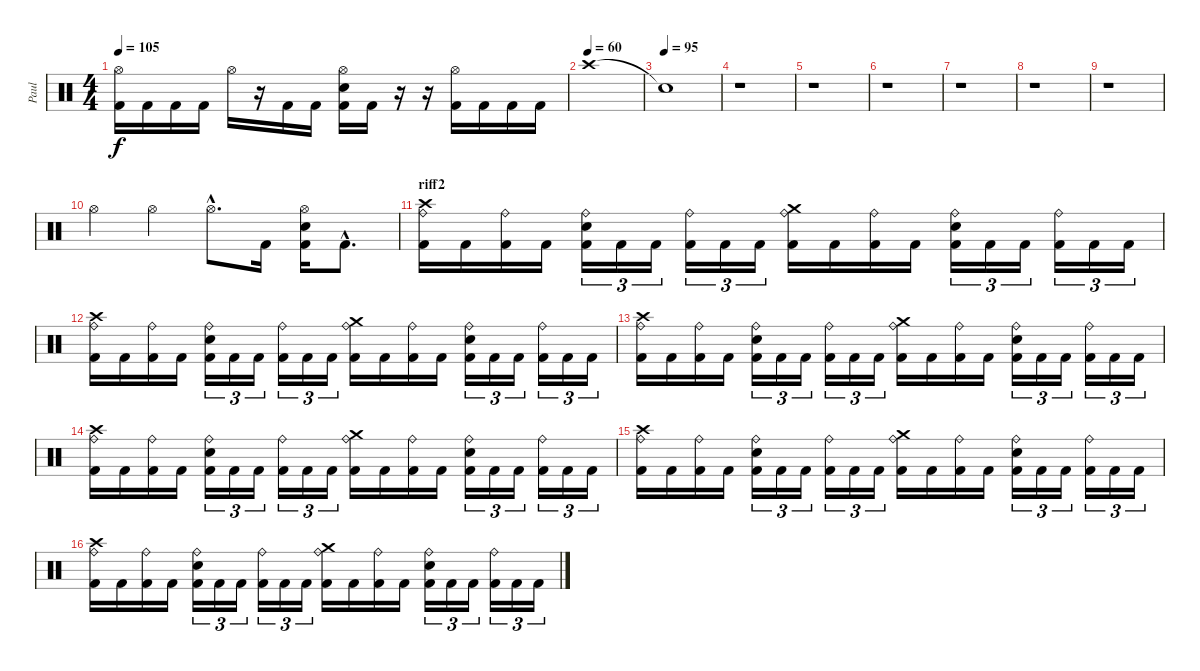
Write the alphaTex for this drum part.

\track ("Paul" "Paul") {instrument percussion}
\staff {score}
\articulation defaults
\ts (4 4)
\tempo 105
\clef neutral
\ks c
("Hi-Hat (open)" "Kick (hit) 2").16{dy f} "Kick (hit) 2".16 "Kick (hit) 2".16 "Kick (hit) 2".16 "Hi-Hat (open)".16 r.16 "Kick (hit) 2".16 "Kick (hit) 2".16 ("Hi-Hat (open)" "Snare (hit) 2" "Kick (hit) 2").16 "Kick (hit) 2".16 r.16 r.16 ("Hi-Hat (open)" "Kick (hit) 2").16 "Kick (hit) 2".16 "Kick (hit) 2".16 "Kick (hit) 2".16 |
\tempo (60)
"Crash high (hit)".1 |
\tempo (95)
"Snare (hit)"{t}.1 |
r.1 |
r.1 |
r.1 |
r.1 |
r.1 |
r.1 |
"Hi-Hat (open)".4 "Hi-Hat (open)".4 "Hi-Hat (open)"{hac}.8{d} "Kick (hit) 2".16 ("Hi-Hat (open)" "Snare (hit) 2" "Kick (hit) 2").16 "Kick (hit) 2"{hac}.8{d} |
\section ("" "riff2")
("Crash high (hit)" "Ride (bell)" "Kick (hit) 2").16 "Kick (hit) 2".16 ("Ride (bell)" "Kick (hit) 2").16 "Kick (hit) 2".16 ("Ride (bell)" "Snare (hit) 2" "Kick (hit) 2").16{tu (3 2)} "Kick (hit) 2".16{tu (3 2)} "Kick (hit) 2".16{tu (3 2)} ("Ride (bell)" "Kick (hit) 2").16{tu (3 2)} "Kick (hit) 2".16{tu (3 2)} "Kick (hit) 2".16{tu (3 2)} ("Crash medium (hit)" "Ride (bell)" "Kick (hit) 2").16 "Kick (hit) 2".16 ("Ride (bell)" "Kick (hit) 2").16 "Kick (hit) 2".16 ("Ride (bell)" "Snare (hit) 2" "Kick (hit) 2").16{tu (3 2)} "Kick (hit) 2".16{tu (3 2)} "Kick (hit) 2".16{tu (3 2)} ("Ride (bell)" "Kick (hit) 2").16{tu (3 2)} "Kick (hit) 2".16{tu (3 2)} "Kick (hit) 2".16{tu (3 2)} |
("Crash high (hit)" "Ride (bell)" "Kick (hit) 2").16 "Kick (hit) 2".16 ("Ride (bell)" "Kick (hit) 2").16 "Kick (hit) 2".16 ("Ride (bell)" "Snare (hit) 2" "Kick (hit) 2").16{tu (3 2)} "Kick (hit) 2".16{tu (3 2)} "Kick (hit) 2".16{tu (3 2)} ("Ride (bell)" "Kick (hit) 2").16{tu (3 2)} "Kick (hit) 2".16{tu (3 2)} "Kick (hit) 2".16{tu (3 2)} ("Crash medium (hit)" "Ride (bell)" "Kick (hit) 2").16 "Kick (hit) 2".16 ("Ride (bell)" "Kick (hit) 2").16 "Kick (hit) 2".16 ("Ride (bell)" "Snare (hit) 2" "Kick (hit) 2").16{tu (3 2)} "Kick (hit) 2".16{tu (3 2)} "Kick (hit) 2".16{tu (3 2)} ("Ride (bell)" "Kick (hit) 2").16{tu (3 2)} "Kick (hit) 2".16{tu (3 2)} "Kick (hit) 2".16{tu (3 2)} |
("Crash high (hit)" "Ride (bell)" "Kick (hit) 2").16 "Kick (hit) 2".16 ("Ride (bell)" "Kick (hit) 2").16 "Kick (hit) 2".16 ("Ride (bell)" "Snare (hit) 2" "Kick (hit) 2").16{tu (3 2)} "Kick (hit) 2".16{tu (3 2)} "Kick (hit) 2".16{tu (3 2)} ("Ride (bell)" "Kick (hit) 2").16{tu (3 2)} "Kick (hit) 2".16{tu (3 2)} "Kick (hit) 2".16{tu (3 2)} ("Crash medium (hit)" "Ride (bell)" "Kick (hit) 2").16 "Kick (hit) 2".16 ("Ride (bell)" "Kick (hit) 2").16 "Kick (hit) 2".16 ("Ride (bell)" "Snare (hit) 2" "Kick (hit) 2").16{tu (3 2)} "Kick (hit) 2".16{tu (3 2)} "Kick (hit) 2".16{tu (3 2)} ("Ride (bell)" "Kick (hit) 2").16{tu (3 2)} "Kick (hit) 2".16{tu (3 2)} "Kick (hit) 2".16{tu (3 2)} |
("Crash high (hit)" "Ride (bell)" "Kick (hit) 2").16 "Kick (hit) 2".16 ("Ride (bell)" "Kick (hit) 2").16 "Kick (hit) 2".16 ("Ride (bell)" "Snare (hit) 2" "Kick (hit) 2").16{tu (3 2)} "Kick (hit) 2".16{tu (3 2)} "Kick (hit) 2".16{tu (3 2)} ("Ride (bell)" "Kick (hit) 2").16{tu (3 2)} "Kick (hit) 2".16{tu (3 2)} "Kick (hit) 2".16{tu (3 2)} ("Crash medium (hit)" "Ride (bell)" "Kick (hit) 2").16 "Kick (hit) 2".16 ("Ride (bell)" "Kick (hit) 2").16 "Kick (hit) 2".16 ("Ride (bell)" "Snare (hit) 2" "Kick (hit) 2").16{tu (3 2)} "Kick (hit) 2".16{tu (3 2)} "Kick (hit) 2".16{tu (3 2)} ("Ride (bell)" "Kick (hit) 2").16{tu (3 2)} "Kick (hit) 2".16{tu (3 2)} "Kick (hit) 2".16{tu (3 2)} |
("Crash high (hit)" "Ride (bell)" "Kick (hit) 2").16 "Kick (hit) 2".16 ("Ride (bell)" "Kick (hit) 2").16 "Kick (hit) 2".16 ("Ride (bell)" "Snare (hit) 2" "Kick (hit) 2").16{tu (3 2)} "Kick (hit) 2".16{tu (3 2)} "Kick (hit) 2".16{tu (3 2)} ("Ride (bell)" "Kick (hit) 2").16{tu (3 2)} "Kick (hit) 2".16{tu (3 2)} "Kick (hit) 2".16{tu (3 2)} ("Crash medium (hit)" "Ride (bell)" "Kick (hit) 2").16 "Kick (hit) 2".16 ("Ride (bell)" "Kick (hit) 2").16 "Kick (hit) 2".16 ("Ride (bell)" "Snare (hit) 2" "Kick (hit) 2").16{tu (3 2)} "Kick (hit) 2".16{tu (3 2)} "Kick (hit) 2".16{tu (3 2)} ("Ride (bell)" "Kick (hit) 2").16{tu (3 2)} "Kick (hit) 2".16{tu (3 2)} "Kick (hit) 2".16{tu (3 2)} |
("Crash high (hit)" "Ride (bell)" "Kick (hit) 2").16 "Kick (hit) 2".16 ("Ride (bell)" "Kick (hit) 2").16 "Kick (hit) 2".16 ("Ride (bell)" "Snare (hit) 2" "Kick (hit) 2").16{tu (3 2)} "Kick (hit) 2".16{tu (3 2)} "Kick (hit) 2".16{tu (3 2)} ("Ride (bell)" "Kick (hit) 2").16{tu (3 2)} "Kick (hit) 2".16{tu (3 2)} "Kick (hit) 2".16{tu (3 2)} ("Crash medium (hit)" "Ride (bell)" "Kick (hit) 2").16 "Kick (hit) 2".16 ("Ride (bell)" "Kick (hit) 2").16 "Kick (hit) 2".16 ("Ride (bell)" "Snare (hit) 2" "Kick (hit) 2").16{tu (3 2)} "Kick (hit) 2".16{tu (3 2)} "Kick (hit) 2".16{tu (3 2)} ("Ride (bell)" "Kick (hit) 2").16{tu (3 2)} "Kick (hit) 2".16{tu (3 2)} "Kick (hit) 2".16{tu (3 2)}
